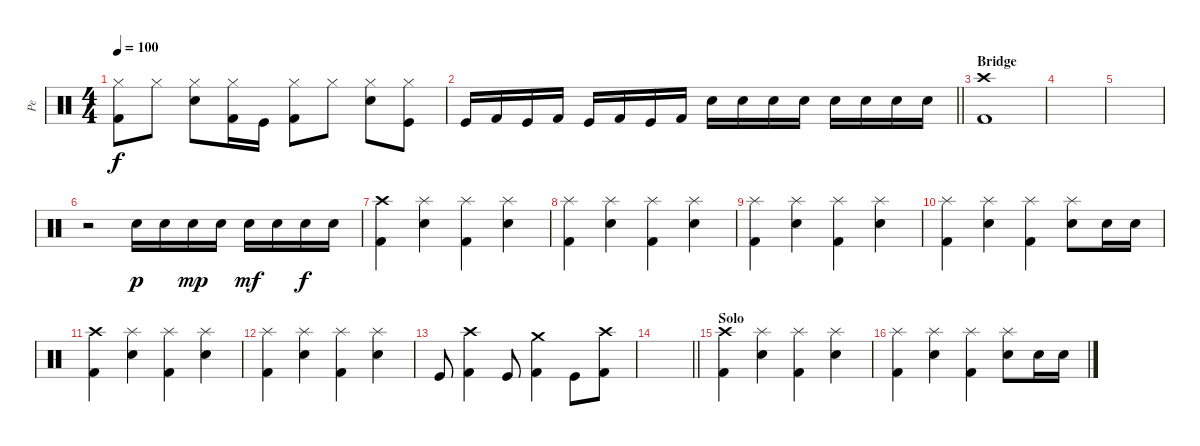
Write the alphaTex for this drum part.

\track ("Pe" "Pe") {instrument percussion}
\staff {score}
\articulation defaults
\ts (4 4)
\tempo 100
\clef neutral
\ks c
("Kick (hit) 2" "Hi-Hat (closed)").8{dy f} "Hi-Hat (closed)".8 ("Electric Snare (hit)" "Hi-Hat (closed)").8 ("Kick (hit) 2" "Hi-Hat (closed)").16 "Kick (hit)".16 ("Kick (hit) 2" "Hi-Hat (closed)").8 "Hi-Hat (closed)".8 ("Electric Snare (hit)" "Hi-Hat (closed)").8 ("Kick (hit)" "Hi-Hat (closed)").8 |
\barLineRight lightlight "Kick (hit)".16 "Kick (hit) 2".16 "Kick (hit)".16 "Kick (hit) 2".16 "Kick (hit)".16 "Kick (hit) 2".16 "Kick (hit)".16 "Kick (hit) 2".16 "Electric Snare (hit)".16 "Electric Snare (hit)".16 "Electric Snare (hit)".16 "Electric Snare (hit)".16 "Electric Snare (hit)".16 "Electric Snare (hit)".16 "Electric Snare (hit)".16 "Electric Snare (hit)".16
|
\section ("" "Bridge")
("Kick (hit) 2" "Crash high (hit)").1 |
|
|
r.2 "Electric Snare (hit)".16{dy p} "Electric Snare (hit)".16 "Electric Snare (hit)".16{dy mp} "Electric Snare (hit)".16 "Electric Snare (hit)".16{dy mf} "Electric Snare (hit)".16 "Electric Snare (hit)".16{dy f} "Electric Snare (hit)".16 |
("Kick (hit) 2" "Crash high (hit)").4 ("Electric Snare (hit)" "Splash (hit)").4 ("Kick (hit) 2" "Splash (hit)").4 ("Electric Snare (hit)" "Splash (hit)").4 |
("Kick (hit) 2" "Splash (hit)").4 ("Electric Snare (hit)" "Splash (hit)").4 ("Kick (hit) 2" "Splash (hit)").4 ("Electric Snare (hit)" "Splash (hit)").4 |
("Kick (hit) 2" "Splash (hit)").4 ("Electric Snare (hit)" "Splash (hit)").4 ("Kick (hit) 2" "Splash (hit)").4 ("Electric Snare (hit)" "Splash (hit)").4 |
("Kick (hit) 2" "Splash (hit)").4 ("Electric Snare (hit)" "Splash (hit)").4 ("Kick (hit) 2" "Splash (hit)").4 ("Electric Snare (hit)" "Splash (hit)").8 "Electric Snare (hit)".16 "Electric Snare (hit)".16 |
("Kick (hit) 2" "Crash high (hit)").4 ("Electric Snare (hit)" "Splash (hit)").4 ("Kick (hit) 2" "Splash (hit)").4 ("Electric Snare (hit)" "Splash (hit)").4 |
("Kick (hit) 2" "Splash (hit)").4 ("Electric Snare (hit)" "Splash (hit)").4 ("Kick (hit) 2" "Splash (hit)").4 ("Electric Snare (hit)" "Splash (hit)").4 |
"Kick (hit)".8 ("Kick (hit) 2" "Crash high (hit)").4 "Kick (hit)".8 ("Kick (hit) 2" "Crash medium (hit)").4 "Kick (hit)".8 ("Kick (hit) 2" "Crash high (hit)").8 |
\barLineRight lightlight
|
\section ("" "Solo")
("Kick (hit) 2" "Crash high (hit)").4 ("Electric Snare (hit)" "Splash (hit)").4 ("Kick (hit) 2" "Splash (hit)").4 ("Electric Snare (hit)" "Splash (hit)").4 |
("Kick (hit) 2" "Splash (hit)").4 ("Electric Snare (hit)" "Splash (hit)").4 ("Kick (hit) 2" "Splash (hit)").4 ("Electric Snare (hit)" "Splash (hit)").8 "Electric Snare (hit)".16 "Electric Snare (hit)".16
